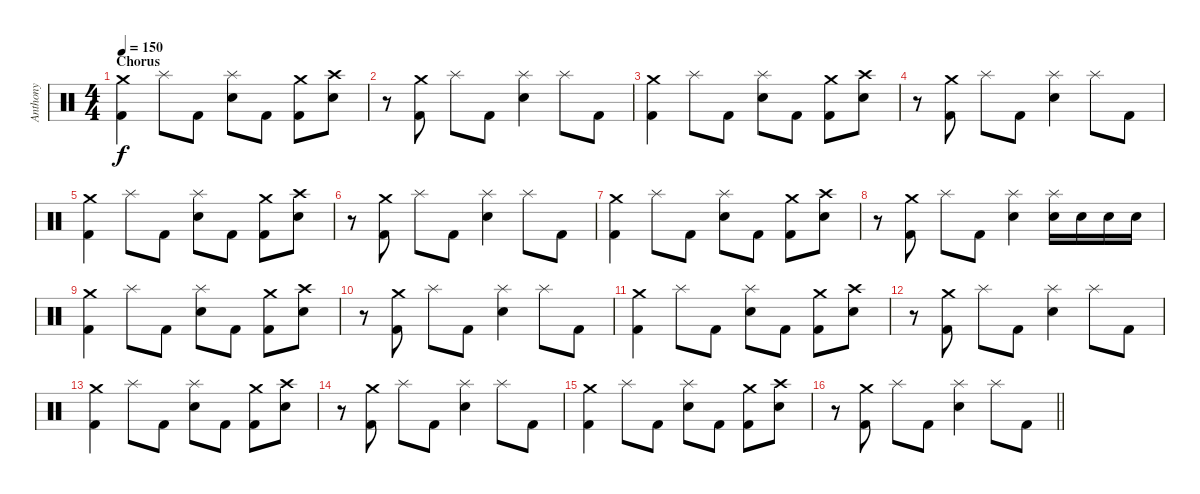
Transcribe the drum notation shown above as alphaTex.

\track ("Anthony" "Anthony") {instrument percussion}
\staff {score}
\articulation defaults
\ts (4 4)
\section ("" "Chorus")
\tempo 150
\clef neutral
\ks c
("Crash medium (hit)" "Kick (hit) 2").4{dy f} "Splash (hit)".8 "Kick (hit) 2".8 ("Splash (hit)" "Electric Snare (hit)").8 "Kick (hit) 2".8 ("Crash medium (hit)" "Kick (hit) 2").8 ("Crash high (hit)" "Electric Snare (hit)").8 |
r.8 ("Crash medium (hit)" "Kick (hit) 2").8 "Splash (hit)".8 "Kick (hit) 2".8 ("Splash (hit)" "Electric Snare (hit)").4 "Splash (hit)".8 "Kick (hit) 2".8 |
("Crash medium (hit)" "Kick (hit) 2").4 "Splash (hit)".8 "Kick (hit) 2".8 ("Splash (hit)" "Electric Snare (hit)").8 "Kick (hit) 2".8 ("Crash medium (hit)" "Kick (hit) 2").8 ("Crash high (hit)" "Electric Snare (hit)").8 |
r.8 ("Crash medium (hit)" "Kick (hit) 2").8 "Splash (hit)".8 "Kick (hit) 2".8 ("Splash (hit)" "Electric Snare (hit)").4 "Splash (hit)".8 "Kick (hit) 2".8 |
("Crash medium (hit)" "Kick (hit) 2").4 "Splash (hit)".8 "Kick (hit) 2".8 ("Splash (hit)" "Electric Snare (hit)").8 "Kick (hit) 2".8 ("Crash medium (hit)" "Kick (hit) 2").8 ("Crash high (hit)" "Electric Snare (hit)").8 |
r.8 ("Crash medium (hit)" "Kick (hit) 2").8 "Splash (hit)".8 "Kick (hit) 2".8 ("Splash (hit)" "Electric Snare (hit)").4 "Splash (hit)".8 "Kick (hit) 2".8 |
("Crash medium (hit)" "Kick (hit) 2").4 "Splash (hit)".8 "Kick (hit) 2".8 ("Splash (hit)" "Electric Snare (hit)").8 "Kick (hit) 2".8 ("Crash medium (hit)" "Kick (hit) 2").8 ("Crash high (hit)" "Electric Snare (hit)").8 |
r.8 ("Crash medium (hit)" "Kick (hit) 2").8 "Splash (hit)".8 "Kick (hit) 2".8 ("Splash (hit)" "Electric Snare (hit)").4 ("Splash (hit)" "Electric Snare (hit)").16 "Electric Snare (hit)".16 "Electric Snare (hit)".16 "Electric Snare (hit)".16 |
("Crash medium (hit)" "Kick (hit) 2").4 "Splash (hit)".8 "Kick (hit) 2".8 ("Splash (hit)" "Electric Snare (hit)").8 "Kick (hit) 2".8 ("Crash medium (hit)" "Kick (hit) 2").8 ("Crash high (hit)" "Electric Snare (hit)").8 |
r.8 ("Crash medium (hit)" "Kick (hit) 2").8 "Splash (hit)".8 "Kick (hit) 2".8 ("Splash (hit)" "Electric Snare (hit)").4 "Splash (hit)".8 "Kick (hit) 2".8 |
("Crash medium (hit)" "Kick (hit) 2").4 "Splash (hit)".8 "Kick (hit) 2".8 ("Splash (hit)" "Electric Snare (hit)").8 "Kick (hit) 2".8 ("Crash medium (hit)" "Kick (hit) 2").8 ("Crash high (hit)" "Electric Snare (hit)").8 |
r.8 ("Crash medium (hit)" "Kick (hit) 2").8 "Splash (hit)".8 "Kick (hit) 2".8 ("Splash (hit)" "Electric Snare (hit)").4 "Splash (hit)".8 "Kick (hit) 2".8 |
("Crash medium (hit)" "Kick (hit) 2").4 "Splash (hit)".8 "Kick (hit) 2".8 ("Splash (hit)" "Electric Snare (hit)").8 "Kick (hit) 2".8 ("Crash medium (hit)" "Kick (hit) 2").8 ("Crash high (hit)" "Electric Snare (hit)").8 |
r.8 ("Crash medium (hit)" "Kick (hit) 2").8 "Splash (hit)".8 "Kick (hit) 2".8 ("Splash (hit)" "Electric Snare (hit)").4 "Splash (hit)".8 "Kick (hit) 2".8 |
("Crash medium (hit)" "Kick (hit) 2").4 "Splash (hit)".8 "Kick (hit) 2".8 ("Splash (hit)" "Electric Snare (hit)").8 "Kick (hit) 2".8 ("Crash medium (hit)" "Kick (hit) 2").8 ("Crash high (hit)" "Electric Snare (hit)").8 |
\barLineRight lightlight
r.8 ("Crash medium (hit)" "Kick (hit) 2").8 "Splash (hit)".8 "Kick (hit) 2".8 ("Splash (hit)" "Electric Snare (hit)").4 "Splash (hit)".8 "Kick (hit) 2".8
